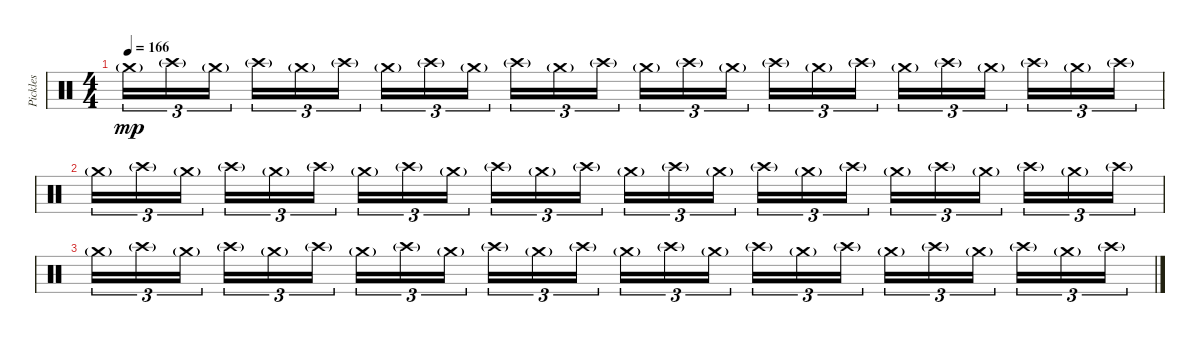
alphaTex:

\track ("Pickles" "Pickles") {instrument percussion}
\staff {score}
\articulation defaults
\ts (4 4)
\tempo 166
\clef neutral
\ks c "Crash medium (hit)"{g}.16{tu (3 2) dy mp} "Crash high (hit)"{g}.16{tu (3 2)} "Crash medium (hit)"{g}.16{tu (3 2) beam splitsecondary} "Crash high (hit)"{g}.16{tu (3 2)} "Crash medium (hit)"{g}.16{tu (3 2)} "Crash high (hit)"{g}.16{tu (3 2)} "Crash medium (hit)"{g}.16{tu (3 2)} "Crash high (hit)"{g}.16{tu (3 2)} "Crash medium (hit)"{g}.16{tu (3 2) beam splitsecondary} "Crash high (hit)"{g}.16{tu (3 2)} "Crash medium (hit)"{g}.16{tu (3 2)} "Crash high (hit)"{g}.16{tu (3 2)} "Crash medium (hit)"{g}.16{tu (3 2)} "Crash high (hit)"{g}.16{tu (3 2)} "Crash medium (hit)"{g}.16{tu (3 2) beam splitsecondary} "Crash high (hit)"{g}.16{tu (3 2)} "Crash medium (hit)"{g}.16{tu (3 2)} "Crash high (hit)"{g}.16{tu (3 2)} "Crash medium (hit)"{g}.16{tu (3 2)} "Crash high (hit)"{g}.16{tu (3 2)} "Crash medium (hit)"{g}.16{tu (3 2) beam splitsecondary} "Crash high (hit)"{g}.16{tu (3 2)} "Crash medium (hit)"{g}.16{tu (3 2)} "Crash high (hit)"{g}.16{tu (3 2)}
|
"Crash medium (hit)"{g}.16{tu (3 2)} "Crash high (hit)"{g}.16{tu (3 2)} "Crash medium (hit)"{g}.16{tu (3 2) beam splitsecondary} "Crash high (hit)"{g}.16{tu (3 2)} "Crash medium (hit)"{g}.16{tu (3 2)} "Crash high (hit)"{g}.16{tu (3 2)} "Crash medium (hit)"{g}.16{tu (3 2)} "Crash high (hit)"{g}.16{tu (3 2)} "Crash medium (hit)"{g}.16{tu (3 2) beam splitsecondary} "Crash high (hit)"{g}.16{tu (3 2)} "Crash medium (hit)"{g}.16{tu (3 2)} "Crash high (hit)"{g}.16{tu (3 2)} "Crash medium (hit)"{g}.16{tu (3 2)} "Crash high (hit)"{g}.16{tu (3 2)} "Crash medium (hit)"{g}.16{tu (3 2) beam splitsecondary} "Crash high (hit)"{g}.16{tu (3 2)} "Crash medium (hit)"{g}.16{tu (3 2)} "Crash high (hit)"{g}.16{tu (3 2)} "Crash medium (hit)"{g}.16{tu (3 2)} "Crash high (hit)"{g}.16{tu (3 2)} "Crash medium (hit)"{g}.16{tu (3 2) beam splitsecondary} "Crash high (hit)"{g}.16{tu (3 2)} "Crash medium (hit)"{g}.16{tu (3 2)} "Crash high (hit)"{g}.16{tu (3 2)} |
"Crash medium (hit)"{g}.16{tu (3 2)} "Crash high (hit)"{g}.16{tu (3 2)} "Crash medium (hit)"{g}.16{tu (3 2) beam splitsecondary} "Crash high (hit)"{g}.16{tu (3 2)} "Crash medium (hit)"{g}.16{tu (3 2)} "Crash high (hit)"{g}.16{tu (3 2)} "Crash medium (hit)"{g}.16{tu (3 2)} "Crash high (hit)"{g}.16{tu (3 2)} "Crash medium (hit)"{g}.16{tu (3 2) beam splitsecondary} "Crash high (hit)"{g}.16{tu (3 2)} "Crash medium (hit)"{g}.16{tu (3 2)} "Crash high (hit)"{g}.16{tu (3 2)} "Crash medium (hit)"{g}.16{tu (3 2)} "Crash high (hit)"{g}.16{tu (3 2)} "Crash medium (hit)"{g}.16{tu (3 2) beam splitsecondary} "Crash high (hit)"{g}.16{tu (3 2)} "Crash medium (hit)"{g}.16{tu (3 2)} "Crash high (hit)"{g}.16{tu (3 2)} "Crash medium (hit)"{g}.16{tu (3 2)} "Crash high (hit)"{g}.16{tu (3 2)} "Crash medium (hit)"{g}.16{tu (3 2) beam splitsecondary} "Crash high (hit)"{g}.16{tu (3 2)} "Crash medium (hit)"{g}.16{tu (3 2)} "Crash high (hit)"{g}.16{tu (3 2)}
